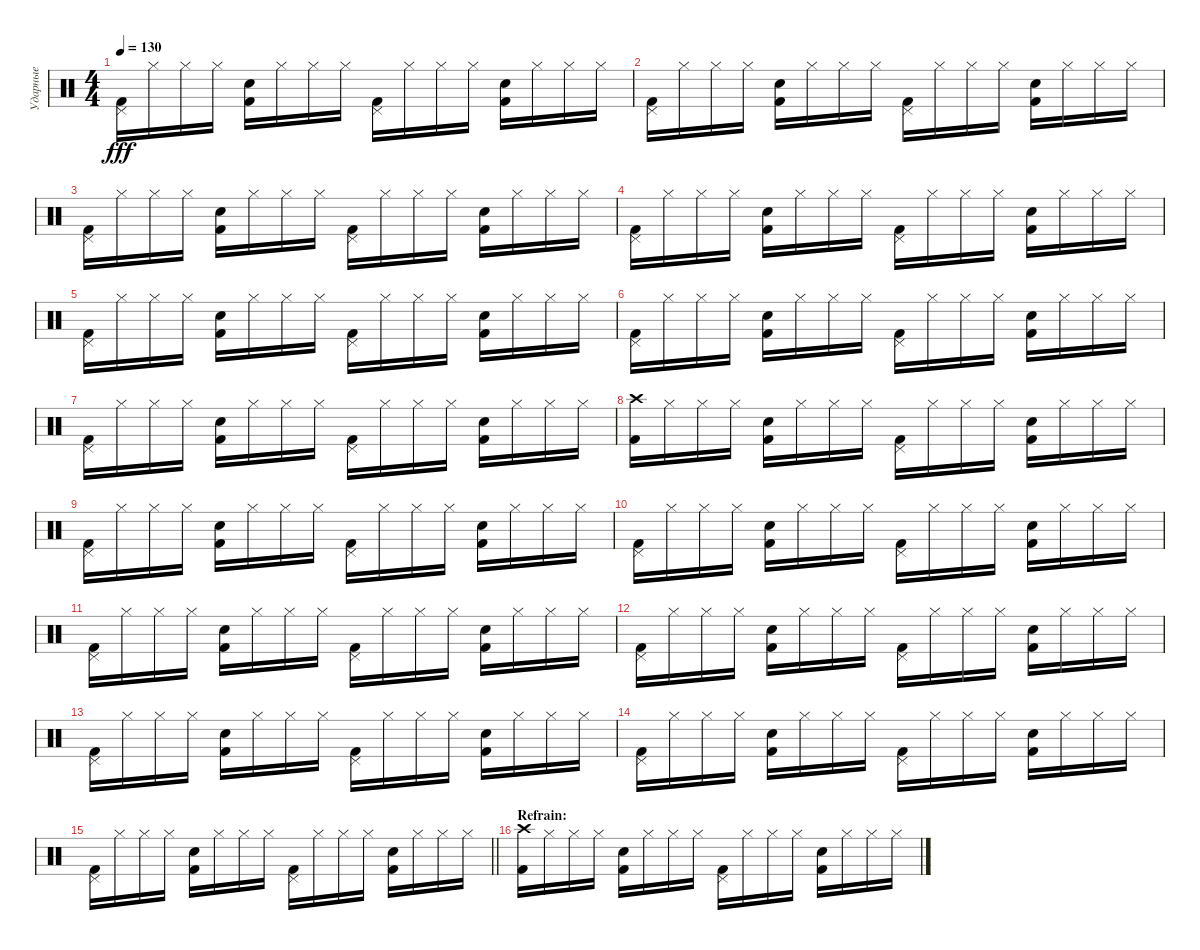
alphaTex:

\track ("Ударные" "Ударные") {instrument percussion}
\staff {score}
\articulation defaults
\ts (4 4)
\tempo 130
\clef neutral
\ks c
("Pedal Hi-Hat (hit)" "Kick (hit) 2").16{dy fff} "Hi-Hat (closed)".16 "Hi-Hat (closed)".16 "Hi-Hat (closed)".16 ("Snare (hit) 2" "Kick (hit) 2").16 "Hi-Hat (closed)".16 "Hi-Hat (closed)".16 "Hi-Hat (closed)".16 ("Pedal Hi-Hat (hit)" "Kick (hit) 2").16 "Hi-Hat (closed)".16 "Hi-Hat (closed)".16 "Hi-Hat (closed)".16 ("Snare (hit) 2" "Kick (hit) 2").16 "Hi-Hat (closed)".16 "Hi-Hat (closed)".16 "Hi-Hat (closed)".16 |
("Pedal Hi-Hat (hit)" "Kick (hit) 2").16 "Hi-Hat (closed)".16 "Hi-Hat (closed)".16 "Hi-Hat (closed)".16 ("Snare (hit) 2" "Kick (hit) 2").16 "Hi-Hat (closed)".16 "Hi-Hat (closed)".16 "Hi-Hat (closed)".16 ("Pedal Hi-Hat (hit)" "Kick (hit) 2").16 "Hi-Hat (closed)".16 "Hi-Hat (closed)".16 "Hi-Hat (closed)".16 ("Snare (hit) 2" "Kick (hit) 2").16 "Hi-Hat (closed)".16 "Hi-Hat (closed)".16 "Hi-Hat (closed)".16 |
("Pedal Hi-Hat (hit)" "Kick (hit) 2").16 "Hi-Hat (closed)".16 "Hi-Hat (closed)".16 "Hi-Hat (closed)".16 ("Snare (hit) 2" "Kick (hit) 2").16 "Hi-Hat (closed)".16 "Hi-Hat (closed)".16 "Hi-Hat (closed)".16 ("Pedal Hi-Hat (hit)" "Kick (hit) 2").16 "Hi-Hat (closed)".16 "Hi-Hat (closed)".16 "Hi-Hat (closed)".16 ("Snare (hit) 2" "Kick (hit) 2").16 "Hi-Hat (closed)".16 "Hi-Hat (closed)".16 "Hi-Hat (closed)".16 |
("Pedal Hi-Hat (hit)" "Kick (hit) 2").16 "Hi-Hat (closed)".16 "Hi-Hat (closed)".16 "Hi-Hat (closed)".16 ("Snare (hit) 2" "Kick (hit) 2").16 "Hi-Hat (closed)".16 "Hi-Hat (closed)".16 "Hi-Hat (closed)".16 ("Pedal Hi-Hat (hit)" "Kick (hit) 2").16 "Hi-Hat (closed)".16 "Hi-Hat (closed)".16 "Hi-Hat (closed)".16 ("Snare (hit) 2" "Kick (hit) 2").16 "Hi-Hat (closed)".16 "Hi-Hat (closed)".16 "Hi-Hat (closed)".16 |
("Pedal Hi-Hat (hit)" "Kick (hit) 2").16 "Hi-Hat (closed)".16 "Hi-Hat (closed)".16 "Hi-Hat (closed)".16 ("Snare (hit) 2" "Kick (hit) 2").16 "Hi-Hat (closed)".16 "Hi-Hat (closed)".16 "Hi-Hat (closed)".16 ("Pedal Hi-Hat (hit)" "Kick (hit) 2").16 "Hi-Hat (closed)".16 "Hi-Hat (closed)".16 "Hi-Hat (closed)".16 ("Snare (hit) 2" "Kick (hit) 2").16 "Hi-Hat (closed)".16 "Hi-Hat (closed)".16 "Hi-Hat (closed)".16 |
("Pedal Hi-Hat (hit)" "Kick (hit) 2").16 "Hi-Hat (closed)".16 "Hi-Hat (closed)".16 "Hi-Hat (closed)".16 ("Snare (hit) 2" "Kick (hit) 2").16 "Hi-Hat (closed)".16 "Hi-Hat (closed)".16 "Hi-Hat (closed)".16 ("Pedal Hi-Hat (hit)" "Kick (hit) 2").16 "Hi-Hat (closed)".16 "Hi-Hat (closed)".16 "Hi-Hat (closed)".16 ("Snare (hit) 2" "Kick (hit) 2").16 "Hi-Hat (closed)".16 "Hi-Hat (closed)".16 "Hi-Hat (closed)".16 |
("Pedal Hi-Hat (hit)" "Kick (hit) 2").16 "Hi-Hat (closed)".16 "Hi-Hat (closed)".16 "Hi-Hat (closed)".16 ("Snare (hit) 2" "Kick (hit) 2").16 "Hi-Hat (closed)".16 "Hi-Hat (closed)".16 "Hi-Hat (closed)".16 ("Pedal Hi-Hat (hit)" "Kick (hit) 2").16 "Hi-Hat (closed)".16 "Hi-Hat (closed)".16 "Hi-Hat (closed)".16 ("Snare (hit) 2" "Kick (hit) 2").16 "Hi-Hat (closed)".16 "Hi-Hat (closed)".16 "Hi-Hat (closed)".16 |
("Crash high (hit)" "Kick (hit) 2").16 "Hi-Hat (closed)".16 "Hi-Hat (closed)".16 "Hi-Hat (closed)".16 ("Snare (hit) 2" "Kick (hit) 2").16 "Hi-Hat (closed)".16 "Hi-Hat (closed)".16 "Hi-Hat (closed)".16 ("Pedal Hi-Hat (hit)" "Kick (hit) 2").16 "Hi-Hat (closed)".16 "Hi-Hat (closed)".16 "Hi-Hat (closed)".16 ("Snare (hit) 2" "Kick (hit) 2").16 "Hi-Hat (closed)".16 "Hi-Hat (closed)".16 "Hi-Hat (closed)".16 |
("Pedal Hi-Hat (hit)" "Kick (hit) 2").16 "Hi-Hat (closed)".16 "Hi-Hat (closed)".16 "Hi-Hat (closed)".16 ("Snare (hit) 2" "Kick (hit) 2").16 "Hi-Hat (closed)".16 "Hi-Hat (closed)".16 "Hi-Hat (closed)".16 ("Pedal Hi-Hat (hit)" "Kick (hit) 2").16 "Hi-Hat (closed)".16 "Hi-Hat (closed)".16 "Hi-Hat (closed)".16 ("Snare (hit) 2" "Kick (hit) 2").16 "Hi-Hat (closed)".16 "Hi-Hat (closed)".16 "Hi-Hat (closed)".16 |
("Pedal Hi-Hat (hit)" "Kick (hit) 2").16 "Hi-Hat (closed)".16 "Hi-Hat (closed)".16 "Hi-Hat (closed)".16 ("Snare (hit) 2" "Kick (hit) 2").16 "Hi-Hat (closed)".16 "Hi-Hat (closed)".16 "Hi-Hat (closed)".16 ("Pedal Hi-Hat (hit)" "Kick (hit) 2").16 "Hi-Hat (closed)".16 "Hi-Hat (closed)".16 "Hi-Hat (closed)".16 ("Snare (hit) 2" "Kick (hit) 2").16 "Hi-Hat (closed)".16 "Hi-Hat (closed)".16 "Hi-Hat (closed)".16 |
("Pedal Hi-Hat (hit)" "Kick (hit) 2").16 "Hi-Hat (closed)".16 "Hi-Hat (closed)".16 "Hi-Hat (closed)".16 ("Snare (hit) 2" "Kick (hit) 2").16 "Hi-Hat (closed)".16 "Hi-Hat (closed)".16 "Hi-Hat (closed)".16 ("Pedal Hi-Hat (hit)" "Kick (hit) 2").16 "Hi-Hat (closed)".16 "Hi-Hat (closed)".16 "Hi-Hat (closed)".16 ("Snare (hit) 2" "Kick (hit) 2").16 "Hi-Hat (closed)".16 "Hi-Hat (closed)".16 "Hi-Hat (closed)".16 |
("Pedal Hi-Hat (hit)" "Kick (hit) 2").16 "Hi-Hat (closed)".16 "Hi-Hat (closed)".16 "Hi-Hat (closed)".16 ("Snare (hit) 2" "Kick (hit) 2").16 "Hi-Hat (closed)".16 "Hi-Hat (closed)".16 "Hi-Hat (closed)".16 ("Pedal Hi-Hat (hit)" "Kick (hit) 2").16 "Hi-Hat (closed)".16 "Hi-Hat (closed)".16 "Hi-Hat (closed)".16 ("Snare (hit) 2" "Kick (hit) 2").16 "Hi-Hat (closed)".16 "Hi-Hat (closed)".16 "Hi-Hat (closed)".16 |
("Pedal Hi-Hat (hit)" "Kick (hit) 2").16 "Hi-Hat (closed)".16 "Hi-Hat (closed)".16 "Hi-Hat (closed)".16 ("Snare (hit) 2" "Kick (hit) 2").16 "Hi-Hat (closed)".16 "Hi-Hat (closed)".16 "Hi-Hat (closed)".16 ("Pedal Hi-Hat (hit)" "Kick (hit) 2").16 "Hi-Hat (closed)".16 "Hi-Hat (closed)".16 "Hi-Hat (closed)".16 ("Snare (hit) 2" "Kick (hit) 2").16 "Hi-Hat (closed)".16 "Hi-Hat (closed)".16 "Hi-Hat (closed)".16 |
("Pedal Hi-Hat (hit)" "Kick (hit) 2").16 "Hi-Hat (closed)".16 "Hi-Hat (closed)".16 "Hi-Hat (closed)".16 ("Snare (hit) 2" "Kick (hit) 2").16 "Hi-Hat (closed)".16 "Hi-Hat (closed)".16 "Hi-Hat (closed)".16 ("Pedal Hi-Hat (hit)" "Kick (hit) 2").16 "Hi-Hat (closed)".16 "Hi-Hat (closed)".16 "Hi-Hat (closed)".16 ("Snare (hit) 2" "Kick (hit) 2").16 "Hi-Hat (closed)".16 "Hi-Hat (closed)".16 "Hi-Hat (closed)".16 |
\barLineRight lightlight
("Pedal Hi-Hat (hit)" "Kick (hit) 2").16 "Hi-Hat (closed)".16 "Hi-Hat (closed)".16 "Hi-Hat (closed)".16 ("Snare (hit) 2" "Kick (hit) 2").16 "Hi-Hat (closed)".16 "Hi-Hat (closed)".16 "Hi-Hat (closed)".16 ("Pedal Hi-Hat (hit)" "Kick (hit) 2").16 "Hi-Hat (closed)".16 "Hi-Hat (closed)".16 "Hi-Hat (closed)".16 ("Snare (hit) 2" "Kick (hit) 2").16 "Hi-Hat (closed)".16 "Hi-Hat (closed)".16 "Hi-Hat (closed)".16 |
\section ("" "Refrain:")
("Crash high (hit)" "Kick (hit) 2").16 "Hi-Hat (closed)".16 "Hi-Hat (closed)".16 "Hi-Hat (closed)".16 ("Snare (hit) 2" "Kick (hit) 2").16 "Hi-Hat (closed)".16 "Hi-Hat (closed)".16 "Hi-Hat (closed)".16 ("Pedal Hi-Hat (hit)" "Kick (hit) 2").16 "Hi-Hat (closed)".16 "Hi-Hat (closed)".16 "Hi-Hat (closed)".16 ("Snare (hit) 2" "Kick (hit) 2").16 "Hi-Hat (closed)".16 "Hi-Hat (closed)".16 "Hi-Hat (closed)".16
